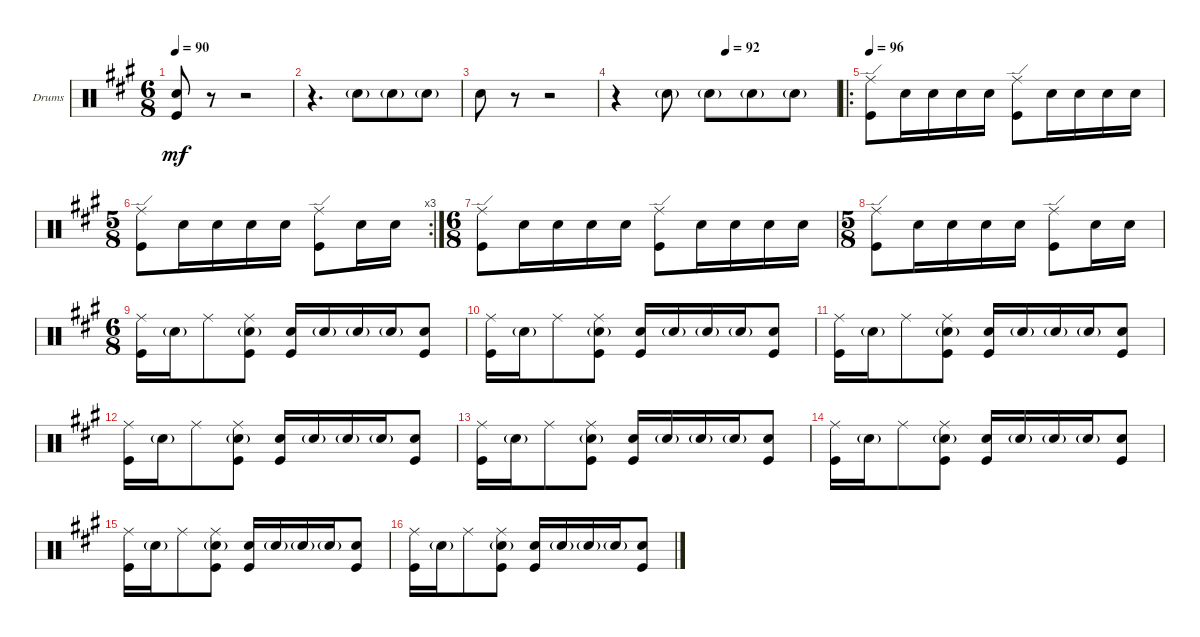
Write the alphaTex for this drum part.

\bracketExtendMode groupsimilarinstruments
\firstSystemTrackNameOrientation horizontal
\otherSystemsTrackNameOrientation horizontal
\track ("Drumkit" "Drums") {instrument percussion}
\staff {score}
\articulation defaults
\ts (6 8)
\tempo 90
\clef neutral
\scale
0.333333
\ks a
("Snare (hit) 2" "Kick (hit)").8{dy mf} r.8 r.2 |
\scale
0.333333 r.4{d} "Snare (hit) 2"{g}.8 "Snare (hit) 2"{g}.8 "Snare (hit) 2"{g}.8 |
\scale
0.333333 "Snare (hit) 2".8 r.8 r.2 |
\tempo (92 0.5)
\scale
0.333333 r.4 "Snare (hit) 2"{g}.8 "Snare (hit) 2"{g}.8 "Snare (hit) 2"{g}.8 "Snare (hit) 2"{g}.8 |
\ro
\tempo 96
\scale
0.247312 ("Kick (hit)" "Ride (edge)").8 "Snare (hit) 2".16 "Snare (hit) 2".16 "Snare (hit) 2".16 "Snare (hit) 2".16 ("Kick (hit)" "Ride (edge)").8 "Snare (hit) 2".16 "Snare (hit) 2".16 "Snare (hit) 2".16 "Snare (hit) 2".16 |
\rc 3
\ts (5 8)
\beaming (8 3 2)
\scale
0.387097 ("Kick (hit)" "Ride (edge)").8 "Snare (hit) 2".16 "Snare (hit) 2".16 "Snare (hit) 2".16 "Snare (hit) 2".16 ("Kick (hit)" "Ride (edge)").8 "Snare (hit) 2".16 "Snare (hit) 2".16 |
\ts (6 8)
\beaming (8 3 3)
\scale
0.365591 ("Kick (hit)" "Ride (edge)").8 "Snare (hit) 2".16 "Snare (hit) 2".16 "Snare (hit) 2".16 "Snare (hit) 2".16 ("Kick (hit)" "Ride (edge)").8 "Snare (hit) 2".16 "Snare (hit) 2".16 "Snare (hit) 2".16 "Snare (hit) 2".16 |
\ts (5 8)
\beaming (8 3 2)
\scale
0.390805 ("Kick (hit)" "Ride (edge)").8 "Snare (hit) 2".16 "Snare (hit) 2".16 "Snare (hit) 2".16 "Snare (hit) 2".16 ("Kick (hit)" "Ride (edge)").8 "Snare (hit) 2".16 "Snare (hit) 2".16 |
\ts (6 8)
\beaming (8 3 3)
\scale
0.390805 ("Ride (middle)" "Kick (hit)").16 "Snare (hit) 2"{g}.16 "Ride (middle)".8 ("Snare (hit) 2"{g} "Ride (middle)" "Kick (hit)").8 ("Snare (hit) 2" "Kick (hit)").16 "Snare (hit) 2"{g}.16 "Snare (hit) 2"{g}.16 "Snare (hit) 2"{g}.16 ("Snare (hit) 2" "Kick (hit)").8 |
\scale
0.218391 ("Ride (middle)" "Kick (hit)").16 "Snare (hit) 2"{g}.16 "Ride (middle)".8 ("Snare (hit) 2"{g} "Ride (middle)" "Kick (hit)").8 ("Snare (hit) 2" "Kick (hit)").16 "Snare (hit) 2"{g}.16 "Snare (hit) 2"{g}.16 "Snare (hit) 2"{g}.16 ("Snare (hit) 2" "Kick (hit)").8 |
\scale
0.333333 ("Ride (middle)" "Kick (hit)").16 "Snare (hit) 2"{g}.16 "Ride (middle)".8 ("Snare (hit) 2"{g} "Ride (middle)" "Kick (hit)").8 ("Snare (hit) 2" "Kick (hit)").16 "Snare (hit) 2"{g}.16 "Snare (hit) 2"{g}.16 "Snare (hit) 2"{g}.16 ("Snare (hit) 2" "Kick (hit)").8 |
\scale
0.333333 ("Ride (middle)" "Kick (hit)").16 "Snare (hit) 2"{g}.16 "Ride (middle)".8 ("Snare (hit) 2"{g} "Ride (middle)" "Kick (hit)").8 ("Snare (hit) 2" "Kick (hit)").16 "Snare (hit) 2"{g}.16 "Snare (hit) 2"{g}.16 "Snare (hit) 2"{g}.16 ("Snare (hit) 2" "Kick (hit)").8 |
\scale
0.333333 ("Ride (middle)" "Kick (hit)").16 "Snare (hit) 2"{g}.16 "Ride (middle)".8 ("Snare (hit) 2"{g} "Ride (middle)" "Kick (hit)").8 ("Snare (hit) 2" "Kick (hit)").16 "Snare (hit) 2"{g}.16 "Snare (hit) 2"{g}.16 "Snare (hit) 2"{g}.16 ("Snare (hit) 2" "Kick (hit)").8 |
\scale
0.333333 ("Ride (middle)" "Kick (hit)").16 "Snare (hit) 2"{g}.16 "Ride (middle)".8 ("Snare (hit) 2"{g} "Ride (middle)" "Kick (hit)").8 ("Snare (hit) 2" "Kick (hit)").16 "Snare (hit) 2"{g}.16 "Snare (hit) 2"{g}.16 "Snare (hit) 2"{g}.16 ("Snare (hit) 2" "Kick (hit)").8 |
\scale
0.333333 ("Ride (middle)" "Kick (hit)").16 "Snare (hit) 2"{g}.16 "Ride (middle)".8 ("Snare (hit) 2"{g} "Ride (middle)" "Kick (hit)").8 ("Snare (hit) 2" "Kick (hit)").16 "Snare (hit) 2"{g}.16 "Snare (hit) 2"{g}.16 "Snare (hit) 2"{g}.16 ("Snare (hit) 2" "Kick (hit)").8 |
\scale
0.333333 ("Ride (middle)" "Kick (hit)").16 "Snare (hit) 2"{g}.16 "Ride (middle)".8 ("Snare (hit) 2"{g} "Ride (middle)" "Kick (hit)").8 ("Snare (hit) 2" "Kick (hit)").16 "Snare (hit) 2"{g}.16 "Snare (hit) 2"{g}.16 "Snare (hit) 2"{g}.16 ("Snare (hit) 2" "Kick (hit)").8
